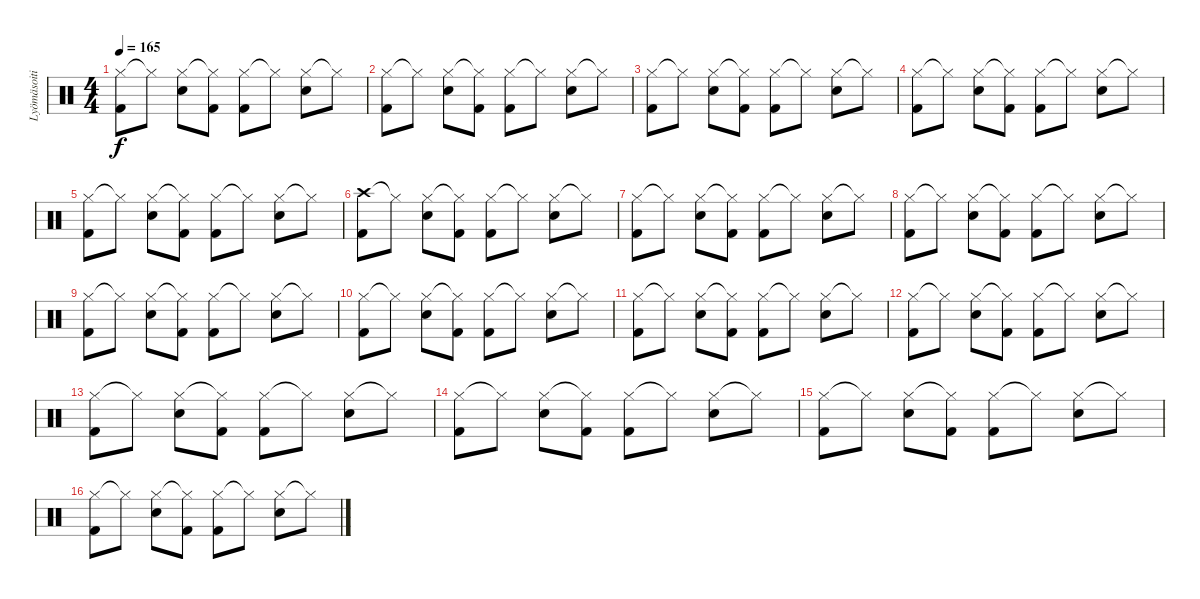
\track ("Lyömäsoitin" "Lyömäsoiti") {instrument percussion}
\staff {score}
\articulation defaults
\ts (4 4)
\tempo 165
\clef neutral
\ks c
("Hi-Hat (closed)" "Kick (hit) 2").8{dy f} "Hi-Hat (closed)"{t}.8 ("Hi-Hat (closed)" "Snare (hit) 2").8 ("Hi-Hat (closed)"{t} "Kick (hit) 2").8 ("Hi-Hat (closed)" "Kick (hit) 2").8 "Hi-Hat (closed)"{t}.8 ("Hi-Hat (closed)" "Snare (hit) 2").8 "Hi-Hat (closed)"{t}.8 |
("Hi-Hat (closed)" "Kick (hit) 2").8 "Hi-Hat (closed)"{t}.8 ("Hi-Hat (closed)" "Snare (hit) 2").8 ("Hi-Hat (closed)"{t} "Kick (hit) 2").8 ("Hi-Hat (closed)" "Kick (hit) 2").8 "Hi-Hat (closed)"{t}.8 ("Hi-Hat (closed)" "Snare (hit) 2").8 "Hi-Hat (closed)"{t}.8 |
("Hi-Hat (closed)" "Kick (hit) 2").8 "Hi-Hat (closed)"{t}.8 ("Hi-Hat (closed)" "Snare (hit) 2").8 ("Hi-Hat (closed)"{t} "Kick (hit) 2").8 ("Hi-Hat (closed)" "Kick (hit) 2").8 "Hi-Hat (closed)"{t}.8 ("Hi-Hat (closed)" "Snare (hit) 2").8 "Hi-Hat (closed)"{t}.8 |
("Hi-Hat (closed)" "Kick (hit) 2").8 "Hi-Hat (closed)"{t}.8 ("Hi-Hat (closed)" "Snare (hit) 2").8 ("Hi-Hat (closed)"{t} "Kick (hit) 2").8 ("Hi-Hat (closed)" "Kick (hit) 2").8 "Hi-Hat (closed)"{t}.8 ("Hi-Hat (closed)" "Snare (hit) 2").8 "Hi-Hat (closed)"{t}.8 |
("Hi-Hat (closed)" "Kick (hit) 2").8 "Hi-Hat (closed)"{t}.8 ("Hi-Hat (closed)" "Snare (hit) 2").8 ("Hi-Hat (closed)"{t} "Kick (hit) 2").8 ("Hi-Hat (closed)" "Kick (hit) 2").8 "Hi-Hat (closed)"{t}.8 ("Hi-Hat (closed)" "Snare (hit) 2").8 "Hi-Hat (closed)"{t}.8 |
("Crash high (hit)" "Kick (hit) 2").8 "Hi-Hat (closed)"{t}.8 ("Hi-Hat (closed)" "Snare (hit) 2").8 ("Hi-Hat (closed)"{t} "Kick (hit) 2").8 ("Hi-Hat (closed)" "Kick (hit) 2").8 "Hi-Hat (closed)"{t}.8 ("Hi-Hat (closed)" "Snare (hit) 2").8 "Hi-Hat (closed)"{t}.8 |
("Hi-Hat (closed)" "Kick (hit) 2").8 "Hi-Hat (closed)"{t}.8 ("Hi-Hat (closed)" "Snare (hit) 2").8 ("Hi-Hat (closed)"{t} "Kick (hit) 2").8 ("Hi-Hat (closed)" "Kick (hit) 2").8 "Hi-Hat (closed)"{t}.8 ("Hi-Hat (closed)" "Snare (hit) 2").8 "Hi-Hat (closed)"{t}.8 |
("Hi-Hat (closed)" "Kick (hit) 2").8 "Hi-Hat (closed)"{t}.8 ("Hi-Hat (closed)" "Snare (hit) 2").8 ("Hi-Hat (closed)"{t} "Kick (hit) 2").8 ("Hi-Hat (closed)" "Kick (hit) 2").8 "Hi-Hat (closed)"{t}.8 ("Hi-Hat (closed)" "Snare (hit) 2").8 "Hi-Hat (closed)"{t}.8 |
("Hi-Hat (closed)" "Kick (hit) 2").8 "Hi-Hat (closed)"{t}.8 ("Hi-Hat (closed)" "Snare (hit) 2").8 ("Hi-Hat (closed)"{t} "Kick (hit) 2").8 ("Hi-Hat (closed)" "Kick (hit) 2").8 "Hi-Hat (closed)"{t}.8 ("Hi-Hat (closed)" "Snare (hit) 2").8 "Hi-Hat (closed)"{t}.8 |
("Hi-Hat (closed)" "Kick (hit) 2").8 "Hi-Hat (closed)"{t}.8 ("Hi-Hat (closed)" "Snare (hit) 2").8 ("Hi-Hat (closed)"{t} "Kick (hit) 2").8 ("Hi-Hat (closed)" "Kick (hit) 2").8 "Hi-Hat (closed)"{t}.8 ("Hi-Hat (closed)" "Snare (hit) 2").8 "Hi-Hat (closed)"{t}.8 |
("Hi-Hat (closed)" "Kick (hit) 2").8 "Hi-Hat (closed)"{t}.8 ("Hi-Hat (closed)" "Snare (hit) 2").8 ("Hi-Hat (closed)"{t} "Kick (hit) 2").8 ("Hi-Hat (closed)" "Kick (hit) 2").8 "Hi-Hat (closed)"{t}.8 ("Hi-Hat (closed)" "Snare (hit) 2").8 "Hi-Hat (closed)"{t}.8 |
("Hi-Hat (closed)" "Kick (hit) 2").8 "Hi-Hat (closed)"{t}.8 ("Hi-Hat (closed)" "Snare (hit) 2").8 ("Hi-Hat (closed)"{t} "Kick (hit) 2").8 ("Hi-Hat (closed)" "Kick (hit) 2").8 "Hi-Hat (closed)"{t}.8 ("Hi-Hat (closed)" "Snare (hit) 2").8 "Hi-Hat (closed)"{t}.8 |
("Hi-Hat (closed)" "Kick (hit) 2").8 "Hi-Hat (closed)"{t}.8 ("Hi-Hat (closed)" "Snare (hit) 2").8 ("Hi-Hat (closed)"{t} "Kick (hit) 2").8 ("Hi-Hat (closed)" "Kick (hit) 2").8 "Hi-Hat (closed)"{t}.8 ("Hi-Hat (closed)" "Snare (hit) 2").8 "Hi-Hat (closed)"{t}.8 |
("Hi-Hat (closed)" "Kick (hit) 2").8 "Hi-Hat (closed)"{t}.8 ("Hi-Hat (closed)" "Snare (hit) 2").8 ("Hi-Hat (closed)"{t} "Kick (hit) 2").8 ("Hi-Hat (closed)" "Kick (hit) 2").8 "Hi-Hat (closed)"{t}.8 ("Hi-Hat (closed)" "Snare (hit) 2").8 "Hi-Hat (closed)"{t}.8 |
("Hi-Hat (closed)" "Kick (hit) 2").8 "Hi-Hat (closed)"{t}.8 ("Hi-Hat (closed)" "Snare (hit) 2").8 ("Hi-Hat (closed)"{t} "Kick (hit) 2").8 ("Hi-Hat (closed)" "Kick (hit) 2").8 "Hi-Hat (closed)"{t}.8 ("Hi-Hat (closed)" "Snare (hit) 2").8 "Hi-Hat (closed)"{t}.8 |
("Hi-Hat (closed)" "Kick (hit) 2").8 "Hi-Hat (closed)"{t}.8 ("Hi-Hat (closed)" "Snare (hit) 2").8 ("Hi-Hat (closed)"{t} "Kick (hit) 2").8 ("Hi-Hat (closed)" "Kick (hit) 2").8 "Hi-Hat (closed)"{t}.8 ("Hi-Hat (closed)" "Snare (hit) 2").8 "Hi-Hat (closed)"{t}.8
